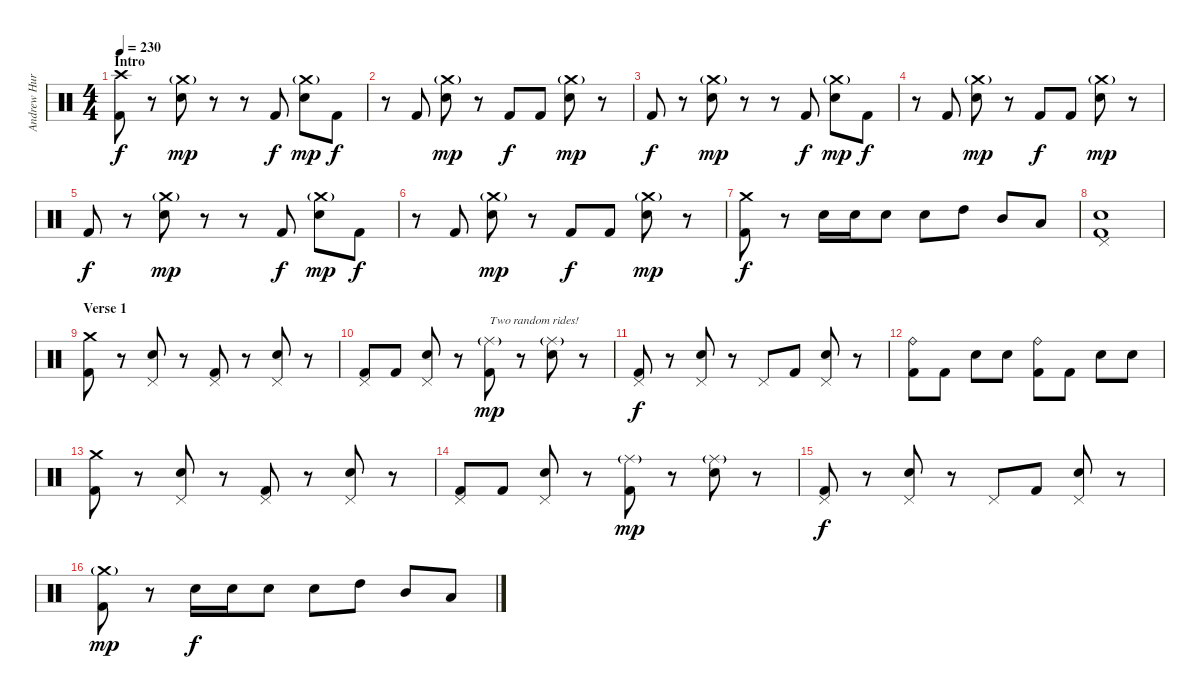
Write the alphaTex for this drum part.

\track ("Andrew Hurley (Drums)" "Andrew Hur") {instrument percussion}
\staff {score}
\articulation defaults
\ts (4 4)
\section ("" "Intro")
\tempo 230
\clef neutral
\ks c
("Crash high (hit)" "Kick (hit) 2").8{dy f} r.8 ("Crash medium (hit)"{g} "Electric Snare (hit)").8{dy mp} r.8 r.8 "Kick (hit) 2".8{dy f} ("Crash medium (hit)"{g} "Electric Snare (hit)").8{dy mp} "Kick (hit) 2".8{dy f} |
r.8 "Kick (hit) 2".8 ("Crash medium (hit)"{g} "Electric Snare (hit)").8{dy mp} r.8 "Kick (hit) 2".8{dy f} "Kick (hit) 2".8 ("Crash medium (hit)"{g} "Electric Snare (hit)").8{dy mp} r.8 |
"Kick (hit) 2".8{dy f} r.8 ("Crash medium (hit)"{g} "Electric Snare (hit)").8{dy mp} r.8 r.8 "Kick (hit) 2".8{dy f} ("Crash medium (hit)"{g} "Electric Snare (hit)").8{dy mp} "Kick (hit) 2".8{dy f} |
r.8 "Kick (hit) 2".8 ("Crash medium (hit)"{g} "Electric Snare (hit)").8{dy mp} r.8 "Kick (hit) 2".8{dy f} "Kick (hit) 2".8 ("Crash medium (hit)"{g} "Electric Snare (hit)").8{dy mp} r.8 |
"Kick (hit) 2".8{dy f} r.8 ("Crash medium (hit)"{g} "Electric Snare (hit)").8{dy mp} r.8 r.8 "Kick (hit) 2".8{dy f} ("Crash medium (hit)"{g} "Electric Snare (hit)").8{dy mp} "Kick (hit) 2".8{dy f} |
r.8 "Kick (hit) 2".8 ("Crash medium (hit)"{g} "Electric Snare (hit)").8{dy mp} r.8 "Kick (hit) 2".8{dy f} "Kick (hit) 2".8 ("Crash medium (hit)"{g} "Electric Snare (hit)").8{dy mp} r.8 |
("Crash medium (hit)" "Kick (hit) 2").8{dy f} r.8 "Electric Snare (hit)".16 "Electric Snare (hit)".16 "Electric Snare (hit)".8 "Electric Snare (hit)".8 "High Tom (hit)".8 "Mid Tom (hit)".8 "Low Tom (hit)".8 |
("Pedal Hi-Hat (hit)" "Electric Snare (hit)" "Kick (hit) 2").1 |
\section ("" "Verse 1")
("Crash medium (hit)" "Kick (hit) 2").8 r.8 ("Pedal Hi-Hat (hit)" "Electric Snare (hit)").8 r.8 ("Pedal Hi-Hat (hit)" "Kick (hit) 2").8 r.8 ("Pedal Hi-Hat (hit)" "Electric Snare (hit)").8 r.8 |
("Pedal Hi-Hat (hit)" "Kick (hit) 2").8 "Kick (hit) 2".8 ("Pedal Hi-Hat (hit)" "Electric Snare (hit)").8 r.8 ("Ride (middle)"{g} "Kick (hit) 2").8{txt "Two random rides!" dy mp} r.8 ("Ride (middle)"{g} "Electric Snare (hit)").8 r.8 |
("Pedal Hi-Hat (hit)" "Kick (hit) 2").8{dy f} r.8 ("Pedal Hi-Hat (hit)" "Electric Snare (hit)").8 r.8 "Pedal Hi-Hat (hit)".8 "Kick (hit) 2".8 ("Pedal Hi-Hat (hit)" "Electric Snare (hit)").8 r.8 |
("Ride (bell)" "Kick (hit) 2").8 "Kick (hit) 2".8 "Electric Snare (hit)".8 "Electric Snare (hit)".8 ("Ride (bell)" "Kick (hit) 2").8 "Kick (hit) 2".8 "Electric Snare (hit)".8 "Electric Snare (hit)".8 |
("Crash medium (hit)" "Kick (hit) 2").8 r.8 ("Pedal Hi-Hat (hit)" "Electric Snare (hit)").8 r.8 ("Pedal Hi-Hat (hit)" "Kick (hit) 2").8 r.8 ("Pedal Hi-Hat (hit)" "Electric Snare (hit)").8 r.8 |
("Pedal Hi-Hat (hit)" "Kick (hit) 2").8 "Kick (hit) 2".8 ("Pedal Hi-Hat (hit)" "Electric Snare (hit)").8 r.8 ("Ride (middle)"{g} "Kick (hit) 2").8{dy mp} r.8 ("Ride (middle)"{g} "Electric Snare (hit)").8 r.8 |
("Pedal Hi-Hat (hit)" "Kick (hit) 2").8{dy f} r.8 ("Pedal Hi-Hat (hit)" "Electric Snare (hit)").8 r.8 "Pedal Hi-Hat (hit)".8 "Kick (hit) 2".8 ("Pedal Hi-Hat (hit)" "Electric Snare (hit)").8 r.8 |
("Crash medium (hit)"{g} "Kick (hit) 2").8{dy mp} r.8 "Electric Snare (hit)".16{dy f} "Electric Snare (hit)".16 "Electric Snare (hit)".8 "Electric Snare (hit)".8 "High Tom (hit)".8 "Mid Tom (hit)".8 "Low Tom (hit)".8
